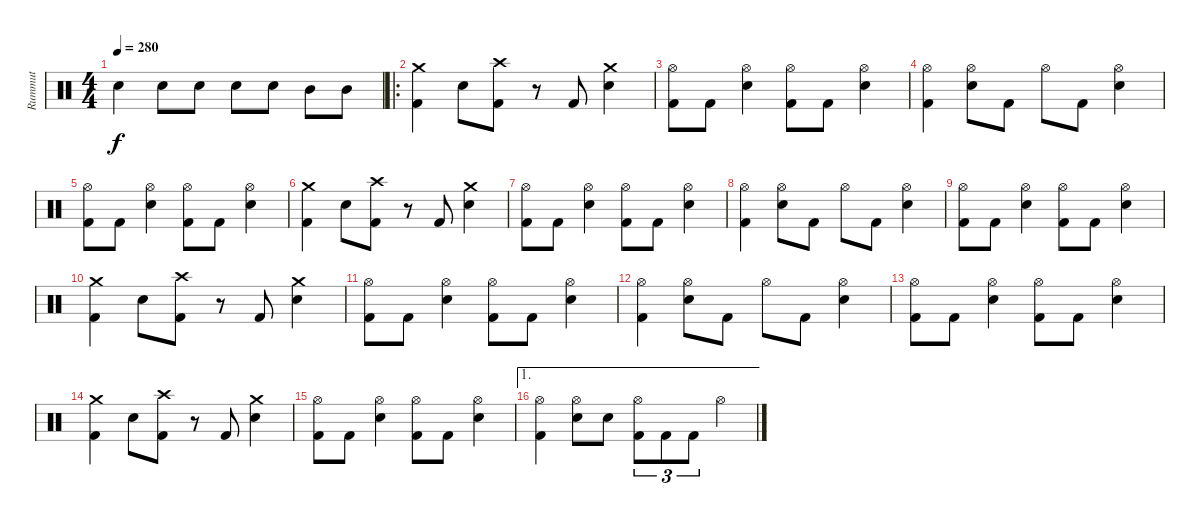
\track ("Rummut" "Rummut") {instrument percussion}
\staff {score}
\articulation defaults
\ts (4 4)
\tempo 280
\clef neutral
\ks c "Snare (hit) 2".4{dy f} "Snare (hit) 2".8 "Snare (hit) 2".8 "Snare (hit) 2".8 "Snare (hit) 2".8 "Mid Tom (hit)".8 "Mid Tom (hit)".8
|
\ro
("Crash medium (hit)" "Kick (hit) 2").4 "Snare (hit) 2".8 ("Crash high (hit)" "Kick (hit) 2").8 r.8 "Kick (hit) 2".8 ("Crash medium (hit)" "Snare (hit) 2").4 |
("Hi-Hat (open)" "Kick (hit) 2").8 "Kick (hit) 2".8 ("Hi-Hat (open)" "Snare (hit) 2").4 ("Hi-Hat (open)" "Kick (hit) 2").8 "Kick (hit) 2".8 ("Hi-Hat (open)" "Snare (hit) 2").4 |
("Hi-Hat (open)" "Kick (hit) 2").4 ("Hi-Hat (open)" "Snare (hit) 2").8 "Kick (hit) 2".8 "Hi-Hat (open)".8 "Kick (hit) 2".8 ("Hi-Hat (open)" "Snare (hit) 2").4 |
("Hi-Hat (open)" "Kick (hit) 2").8 "Kick (hit) 2".8 ("Hi-Hat (open)" "Snare (hit) 2").4 ("Hi-Hat (open)" "Kick (hit) 2").8 "Kick (hit) 2".8 ("Hi-Hat (open)" "Snare (hit) 2").4 |
("Crash medium (hit)" "Kick (hit) 2").4 "Snare (hit) 2".8 ("Crash high (hit)" "Kick (hit) 2").8 r.8 "Kick (hit) 2".8 ("Crash medium (hit)" "Snare (hit) 2").4 |
("Hi-Hat (open)" "Kick (hit) 2").8 "Kick (hit) 2".8 ("Hi-Hat (open)" "Snare (hit) 2").4 ("Hi-Hat (open)" "Kick (hit) 2").8 "Kick (hit) 2".8 ("Hi-Hat (open)" "Snare (hit) 2").4 |
("Hi-Hat (open)" "Kick (hit) 2").4 ("Hi-Hat (open)" "Snare (hit) 2").8 "Kick (hit) 2".8 "Hi-Hat (open)".8 "Kick (hit) 2".8 ("Hi-Hat (open)" "Snare (hit) 2").4 |
("Hi-Hat (open)" "Kick (hit) 2").8 "Kick (hit) 2".8 ("Hi-Hat (open)" "Snare (hit) 2").4 ("Hi-Hat (open)" "Kick (hit) 2").8 "Kick (hit) 2".8 ("Hi-Hat (open)" "Snare (hit) 2").4 |
("Crash medium (hit)" "Kick (hit) 2").4 "Snare (hit) 2".8 ("Crash high (hit)" "Kick (hit) 2").8 r.8 "Kick (hit) 2".8 ("Crash medium (hit)" "Snare (hit) 2").4 |
("Hi-Hat (open)" "Kick (hit) 2").8 "Kick (hit) 2".8 ("Hi-Hat (open)" "Snare (hit) 2").4 ("Hi-Hat (open)" "Kick (hit) 2").8 "Kick (hit) 2".8 ("Hi-Hat (open)" "Snare (hit) 2").4 |
("Hi-Hat (open)" "Kick (hit) 2").4 ("Hi-Hat (open)" "Snare (hit) 2").8 "Kick (hit) 2".8 "Hi-Hat (open)".8 "Kick (hit) 2".8 ("Hi-Hat (open)" "Snare (hit) 2").4 |
("Hi-Hat (open)" "Kick (hit) 2").8 "Kick (hit) 2".8 ("Hi-Hat (open)" "Snare (hit) 2").4 ("Hi-Hat (open)" "Kick (hit) 2").8 "Kick (hit) 2".8 ("Hi-Hat (open)" "Snare (hit) 2").4 |
("Crash medium (hit)" "Kick (hit) 2").4 "Snare (hit) 2".8 ("Crash high (hit)" "Kick (hit) 2").8 r.8 "Kick (hit) 2".8 ("Crash medium (hit)" "Snare (hit) 2").4 |
("Hi-Hat (open)" "Kick (hit) 2").8 "Kick (hit) 2".8 ("Hi-Hat (open)" "Snare (hit) 2").4 ("Hi-Hat (open)" "Kick (hit) 2").8 "Kick (hit) 2".8 ("Hi-Hat (open)" "Snare (hit) 2").4 |
\ae 1
("Hi-Hat (open)" "Kick (hit) 2").4 ("Hi-Hat (open)" "Snare (hit) 2").8 "Snare (hit) 2".8 ("Hi-Hat (open)" "Kick (hit) 2").8{tu (3 2)} "Kick (hit) 2".8{tu (3 2)} "Kick (hit) 2".8{tu (3 2)} "Hi-Hat (open)".4
